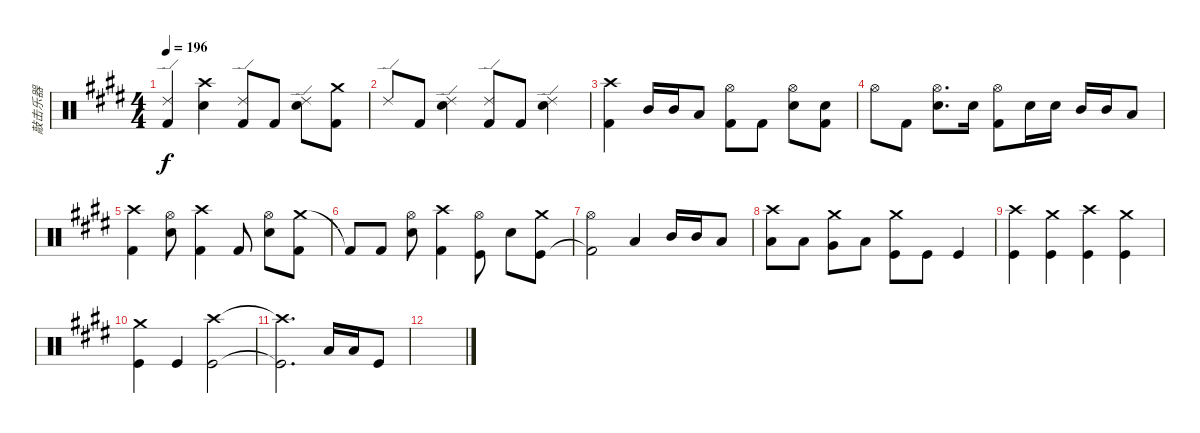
\track ("敲击乐器" "敲击乐器") {instrument percussion}
\staff {score}
\articulation defaults
\ts (4 4)
\tempo 196
\clef neutral
\ks e
("Ride (edge) 2" "Kick (hit) 2").4{dy f} ("Crash high (hit)" "Snare (hit) 2").4 ("Ride (edge) 2" "Kick (hit) 2").8 "Kick (hit) 2".8 ("Ride (edge) 2" "Snare (hit) 2").8 ("Crash medium (hit)" "Kick (hit) 2").8 |
\ks c#minor "Ride (edge) 2".8 "Kick (hit) 2".8
("Ride (edge) 2" "Snare (hit) 2").4 ("Ride (edge) 2" "Kick (hit) 2").8 "Kick (hit) 2".8 ("Ride (edge) 2" "Snare (hit) 2").4 |
\ks e
("Crash high (hit)" "Kick (hit) 2").4 "Mid Tom (hit)".16 "Mid Tom (hit)".16 "Low Tom (hit)".8 ("Hi-Hat (open)" "Kick (hit) 2").8 "Kick (hit) 2".8 ("Hi-Hat (open)" "Snare (hit) 2").8 ("Snare (hit) 2" "Kick (hit) 2").8 |
\ks c#minor "Hi-Hat (open)".8 "Kick (hit) 2".8
("Hi-Hat (open)" "Snare (hit) 2").8{d} "Snare (hit) 2".16 ("Hi-Hat (open)" "Kick (hit) 2").8 "Snare (hit) 2".16 "Snare (hit) 2".16 "Mid Tom (hit)".16 "Mid Tom (hit)".16 "Low Tom (hit)".8 |
\ks e
("Crash high (hit)" "Kick (hit) 2").4 ("Hi-Hat (open)" "Snare (hit) 2").8 ("Crash high (hit)" "Kick (hit) 2").4 "Kick (hit) 2".8 ("Hi-Hat (open)" "Snare (hit) 2").8 ("Crash medium (hit)" "Kick (hit) 2").8 |
\ks c#minor "Kick (hit) 2"{t}.8 "Kick (hit) 2".8
("Hi-Hat (open)" "Snare (hit) 2").8 ("Crash high (hit)" "Kick (hit) 2").4 ("Hi-Hat (open)" "Kick (hit)").8 "Snare (hit) 2".8 ("Crash medium (hit)" "Kick (hit)").8 |
\ks e
("Hi-Hat (open)" "Kick (hit) 2"{t}).2 "Low Tom (hit)".4 "Mid Tom (hit)".16 "Mid Tom (hit)".16 "Low Tom (hit)".8 |
\ks c#minor
("Crash high (hit)" "Low Tom (hit)").8 "Low Tom (hit)".8 ("Crash medium (hit)" "Very Low Tom (hit)").8 "Low Floor Tom (hit)".8 ("Crash medium (hit)" "Kick (hit)").8 "Kick (hit)".8 "Kick (hit)".4 |
\ks e
("Crash high (hit)" "Kick (hit)").4 ("Crash medium (hit)" "Kick (hit)").4 ("Crash high (hit)" "Kick (hit)").4 ("Crash medium (hit)" "Kick (hit)").4 |
\ks c#minor
("Crash medium (hit)" "Kick (hit)").4 "Kick (hit)".4 ("Crash high (hit)" "Kick (hit)").2 |
\ks e
("Crash high (hit)"{t} "Kick (hit)"{t}).2{d} "Low Tom (hit)".16 "Low Tom (hit)".16 "Kick (hit)".8 |
\ks c#minor
